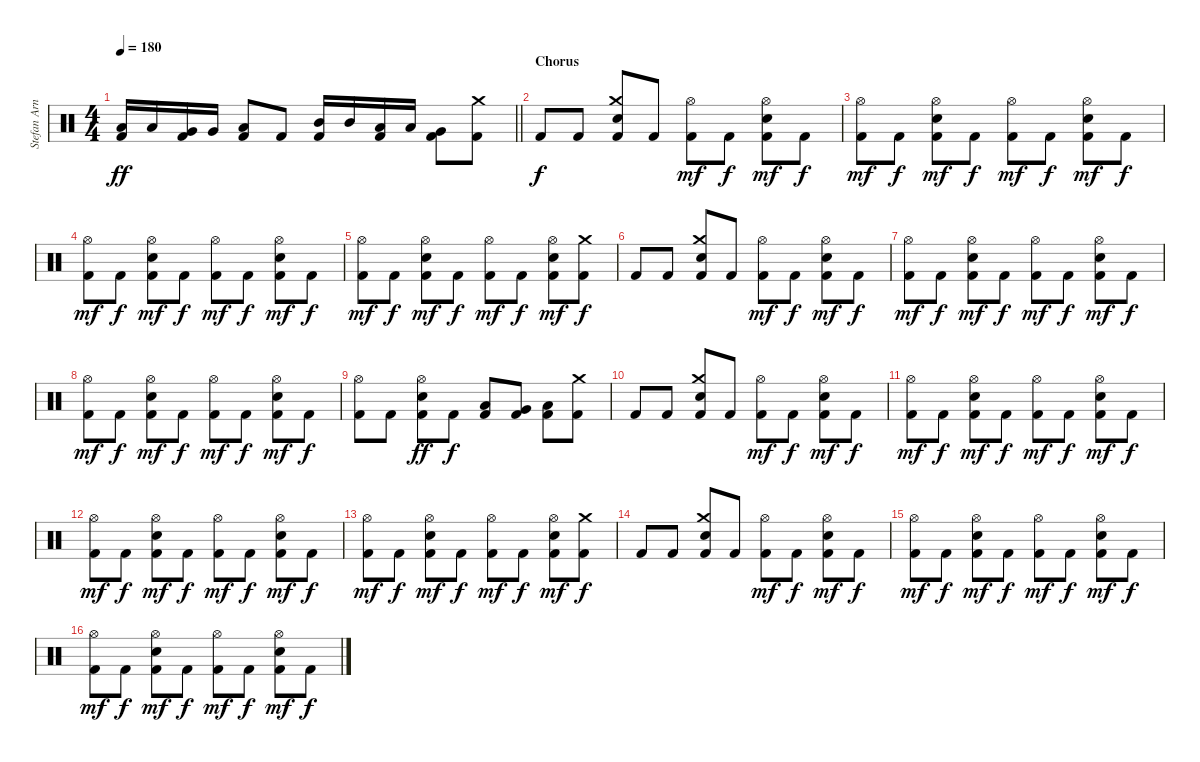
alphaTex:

\track ("Stefan Arnold" "Stefan Arn") {instrument percussion}
\staff {score}
\articulation defaults
\ts (4 4)
\tempo 180
\clef neutral
\barLineRight lightlight
\ks c
("Low Tom (hit)" "Kick (hit) 2").16{dy ff} "Low Tom (hit)".16 ("Very Low Tom (hit)" "Kick (hit) 2").16 "Very Low Tom (hit)".16 ("Low Floor Tom (hit)" "Kick (hit) 2").8 "Kick (hit) 2".8 ("Mid Tom (hit)" "Kick (hit) 2").16 "Mid Tom (hit)".16 ("Low Tom (hit)" "Kick (hit) 2").16 "Low Tom (hit)".16 ("Very Low Tom (hit)" "Kick (hit) 2").8 ("Crash medium (hit)" "Kick (hit) 2").8 |
\section ("" "Chorus")
"Kick (hit) 2".8{dy f} "Kick (hit) 2".8 ("Crash medium (hit)" "Electric Snare (hit)" "Kick (hit) 2").8 "Kick (hit) 2".8 ("Hi-Hat (open)" "Kick (hit) 2").8{dy mf} "Kick (hit) 2".8{dy f} ("Hi-Hat (open)" "Electric Snare (hit)" "Kick (hit) 2").8{dy mf} "Kick (hit) 2".8{dy f} |
("Hi-Hat (open)" "Kick (hit) 2").8{dy mf} "Kick (hit) 2".8{dy f} ("Hi-Hat (open)" "Electric Snare (hit)" "Kick (hit) 2").8{dy mf} "Kick (hit) 2".8{dy f} ("Hi-Hat (open)" "Kick (hit) 2").8{dy mf} "Kick (hit) 2".8{dy f} ("Hi-Hat (open)" "Electric Snare (hit)" "Kick (hit) 2").8{dy mf} "Kick (hit) 2".8{dy f} |
("Hi-Hat (open)" "Kick (hit) 2").8{dy mf} "Kick (hit) 2".8{dy f} ("Hi-Hat (open)" "Electric Snare (hit)" "Kick (hit) 2").8{dy mf} "Kick (hit) 2".8{dy f} ("Hi-Hat (open)" "Kick (hit) 2").8{dy mf} "Kick (hit) 2".8{dy f} ("Hi-Hat (open)" "Electric Snare (hit)" "Kick (hit) 2").8{dy mf} "Kick (hit) 2".8{dy f} |
("Hi-Hat (open)" "Kick (hit) 2").8{dy mf} "Kick (hit) 2".8{dy f} ("Hi-Hat (open)" "Electric Snare (hit)" "Kick (hit) 2").8{dy mf} "Kick (hit) 2".8{dy f} ("Hi-Hat (open)" "Kick (hit) 2").8{dy mf} "Kick (hit) 2".8{dy f} ("Hi-Hat (open)" "Electric Snare (hit)" "Kick (hit) 2").8{dy mf} ("Crash medium (hit)" "Kick (hit) 2").8{dy f} |
"Kick (hit) 2".8 "Kick (hit) 2".8 ("Crash medium (hit)" "Electric Snare (hit)" "Kick (hit) 2").8 "Kick (hit) 2".8 ("Hi-Hat (open)" "Kick (hit) 2").8{dy mf} "Kick (hit) 2".8{dy f} ("Hi-Hat (open)" "Electric Snare (hit)" "Kick (hit) 2").8{dy mf} "Kick (hit) 2".8{dy f} |
("Hi-Hat (open)" "Kick (hit) 2").8{dy mf} "Kick (hit) 2".8{dy f} ("Hi-Hat (open)" "Electric Snare (hit)" "Kick (hit) 2").8{dy mf} "Kick (hit) 2".8{dy f} ("Hi-Hat (open)" "Kick (hit) 2").8{dy mf} "Kick (hit) 2".8{dy f} ("Hi-Hat (open)" "Electric Snare (hit)" "Kick (hit) 2").8{dy mf} "Kick (hit) 2".8{dy f} |
("Hi-Hat (open)" "Kick (hit) 2").8{dy mf} "Kick (hit) 2".8{dy f} ("Hi-Hat (open)" "Electric Snare (hit)" "Kick (hit) 2").8{dy mf} "Kick (hit) 2".8{dy f} ("Hi-Hat (open)" "Kick (hit) 2").8{dy mf} "Kick (hit) 2".8{dy f} ("Hi-Hat (open)" "Electric Snare (hit)" "Kick (hit) 2").8{dy mf} "Kick (hit) 2".8{dy f} |
("Hi-Hat (open)" "Kick (hit) 2").8 "Kick (hit) 2".8 ("Hi-Hat (open)" "Electric Snare (hit)" "Kick (hit) 2").8{dy ff} "Kick (hit) 2".8{dy f} ("Low Tom (hit)" "Kick (hit) 2").8 ("Very Low Tom (hit)" "Kick (hit) 2").8 ("Low Floor Tom (hit)" "Kick (hit) 2").8 ("Crash medium (hit)" "Kick (hit) 2").8 |
"Kick (hit) 2".8 "Kick (hit) 2".8 ("Crash medium (hit)" "Electric Snare (hit)" "Kick (hit) 2").8 "Kick (hit) 2".8 ("Hi-Hat (open)" "Kick (hit) 2").8{dy mf} "Kick (hit) 2".8{dy f} ("Hi-Hat (open)" "Electric Snare (hit)" "Kick (hit) 2").8{dy mf} "Kick (hit) 2".8{dy f} |
("Hi-Hat (open)" "Kick (hit) 2").8{dy mf} "Kick (hit) 2".8{dy f} ("Hi-Hat (open)" "Electric Snare (hit)" "Kick (hit) 2").8{dy mf} "Kick (hit) 2".8{dy f} ("Hi-Hat (open)" "Kick (hit) 2").8{dy mf} "Kick (hit) 2".8{dy f} ("Hi-Hat (open)" "Electric Snare (hit)" "Kick (hit) 2").8{dy mf} "Kick (hit) 2".8{dy f} |
("Hi-Hat (open)" "Kick (hit) 2").8{dy mf} "Kick (hit) 2".8{dy f} ("Hi-Hat (open)" "Electric Snare (hit)" "Kick (hit) 2").8{dy mf} "Kick (hit) 2".8{dy f} ("Hi-Hat (open)" "Kick (hit) 2").8{dy mf} "Kick (hit) 2".8{dy f} ("Hi-Hat (open)" "Electric Snare (hit)" "Kick (hit) 2").8{dy mf} "Kick (hit) 2".8{dy f} |
("Hi-Hat (open)" "Kick (hit) 2").8{dy mf} "Kick (hit) 2".8{dy f} ("Hi-Hat (open)" "Electric Snare (hit)" "Kick (hit) 2").8{dy mf} "Kick (hit) 2".8{dy f} ("Hi-Hat (open)" "Kick (hit) 2").8{dy mf} "Kick (hit) 2".8{dy f} ("Hi-Hat (open)" "Electric Snare (hit)" "Kick (hit) 2").8{dy mf} ("Crash medium (hit)" "Kick (hit) 2").8{dy f} |
"Kick (hit) 2".8 "Kick (hit) 2".8 ("Crash medium (hit)" "Electric Snare (hit)" "Kick (hit) 2").8 "Kick (hit) 2".8 ("Hi-Hat (open)" "Kick (hit) 2").8{dy mf} "Kick (hit) 2".8{dy f} ("Hi-Hat (open)" "Electric Snare (hit)" "Kick (hit) 2").8{dy mf} "Kick (hit) 2".8{dy f} |
("Hi-Hat (open)" "Kick (hit) 2").8{dy mf} "Kick (hit) 2".8{dy f} ("Hi-Hat (open)" "Electric Snare (hit)" "Kick (hit) 2").8{dy mf} "Kick (hit) 2".8{dy f} ("Hi-Hat (open)" "Kick (hit) 2").8{dy mf} "Kick (hit) 2".8{dy f} ("Hi-Hat (open)" "Electric Snare (hit)" "Kick (hit) 2").8{dy mf} "Kick (hit) 2".8{dy f} |
("Hi-Hat (open)" "Kick (hit) 2").8{dy mf} "Kick (hit) 2".8{dy f} ("Hi-Hat (open)" "Electric Snare (hit)" "Kick (hit) 2").8{dy mf} "Kick (hit) 2".8{dy f} ("Hi-Hat (open)" "Kick (hit) 2").8{dy mf} "Kick (hit) 2".8{dy f} ("Hi-Hat (open)" "Electric Snare (hit)" "Kick (hit) 2").8{dy mf} "Kick (hit) 2".8{dy f}
